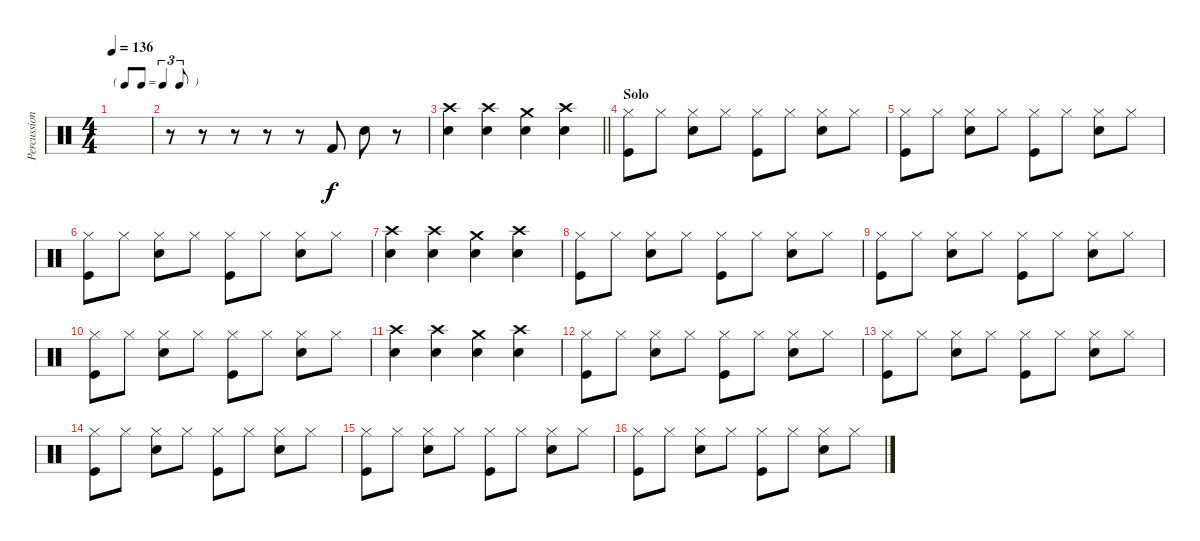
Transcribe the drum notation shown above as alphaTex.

\track ("Percussion" "Percussion") {instrument percussion}
\staff {score}
\articulation defaults
\ts (4 4)
\tf triplet8th
\tempo 136
\clef neutral
\ks c
|
r.8 r.8 r.8 r.8 r.8 "Kick (hit) 2".8 "Snare (hit) 2".8 r.8 |
\barLineRight lightlight
("Crash high (hit)" "Snare (hit) 2").4 ("Crash high (hit)" "Snare (hit) 2").4 ("Crash medium (hit)" "Snare (hit) 2").4 ("Crash high (hit)" "Snare (hit) 2").4 |
\section ("" "Solo")
("Hi-Hat (closed)" "Kick (hit)").8 "Hi-Hat (closed)".8 ("Hi-Hat (closed)" "Snare (hit) 2").8 "Hi-Hat (closed)".8 ("Hi-Hat (closed)" "Kick (hit)").8 "Hi-Hat (closed)".8 ("Hi-Hat (closed)" "Snare (hit) 2").8 "Hi-Hat (closed)".8 |
("Hi-Hat (closed)" "Kick (hit)").8 "Hi-Hat (closed)".8 ("Hi-Hat (closed)" "Snare (hit) 2").8 "Hi-Hat (closed)".8 ("Hi-Hat (closed)" "Kick (hit)").8 "Hi-Hat (closed)".8 ("Hi-Hat (closed)" "Snare (hit) 2").8 "Hi-Hat (closed)".8 |
("Hi-Hat (closed)" "Kick (hit)").8 "Hi-Hat (closed)".8 ("Hi-Hat (closed)" "Snare (hit) 2").8 "Hi-Hat (closed)".8 ("Hi-Hat (closed)" "Kick (hit)").8 "Hi-Hat (closed)".8 ("Hi-Hat (closed)" "Snare (hit) 2").8 "Hi-Hat (closed)".8 |
("Crash high (hit)" "Snare (hit) 2").4 ("Crash high (hit)" "Snare (hit) 2").4 ("Crash medium (hit)" "Snare (hit) 2").4 ("Crash high (hit)" "Snare (hit) 2").4 |
("Hi-Hat (closed)" "Kick (hit)").8 "Hi-Hat (closed)".8 ("Hi-Hat (closed)" "Snare (hit) 2").8 "Hi-Hat (closed)".8 ("Hi-Hat (closed)" "Kick (hit)").8 "Hi-Hat (closed)".8 ("Hi-Hat (closed)" "Snare (hit) 2").8 "Hi-Hat (closed)".8 |
("Hi-Hat (closed)" "Kick (hit)").8 "Hi-Hat (closed)".8 ("Hi-Hat (closed)" "Snare (hit) 2").8 "Hi-Hat (closed)".8 ("Hi-Hat (closed)" "Kick (hit)").8 "Hi-Hat (closed)".8 ("Hi-Hat (closed)" "Snare (hit) 2").8 "Hi-Hat (closed)".8 |
("Hi-Hat (closed)" "Kick (hit)").8 "Hi-Hat (closed)".8 ("Hi-Hat (closed)" "Snare (hit) 2").8 "Hi-Hat (closed)".8 ("Hi-Hat (closed)" "Kick (hit)").8 "Hi-Hat (closed)".8 ("Hi-Hat (closed)" "Snare (hit) 2").8 "Hi-Hat (closed)".8 |
("Crash high (hit)" "Snare (hit) 2").4 ("Crash high (hit)" "Snare (hit) 2").4 ("Crash medium (hit)" "Snare (hit) 2").4 ("Crash high (hit)" "Snare (hit) 2").4 |
("Hi-Hat (closed)" "Kick (hit)").8 "Hi-Hat (closed)".8 ("Hi-Hat (closed)" "Snare (hit) 2").8 "Hi-Hat (closed)".8 ("Hi-Hat (closed)" "Kick (hit)").8 "Hi-Hat (closed)".8 ("Hi-Hat (closed)" "Snare (hit) 2").8 "Hi-Hat (closed)".8 |
("Hi-Hat (closed)" "Kick (hit)").8 "Hi-Hat (closed)".8 ("Hi-Hat (closed)" "Snare (hit) 2").8 "Hi-Hat (closed)".8 ("Hi-Hat (closed)" "Kick (hit)").8 "Hi-Hat (closed)".8 ("Hi-Hat (closed)" "Snare (hit) 2").8 "Hi-Hat (closed)".8 |
("Hi-Hat (closed)" "Kick (hit)").8 "Hi-Hat (closed)".8 ("Hi-Hat (closed)" "Snare (hit) 2").8 "Hi-Hat (closed)".8 ("Hi-Hat (closed)" "Kick (hit)").8 "Hi-Hat (closed)".8 ("Hi-Hat (closed)" "Snare (hit) 2").8 "Hi-Hat (closed)".8 |
("Hi-Hat (closed)" "Kick (hit)").8 "Hi-Hat (closed)".8 ("Hi-Hat (closed)" "Snare (hit) 2").8 "Hi-Hat (closed)".8 ("Hi-Hat (closed)" "Kick (hit)").8 "Hi-Hat (closed)".8 ("Hi-Hat (closed)" "Snare (hit) 2").8 "Hi-Hat (closed)".8 |
("Hi-Hat (closed)" "Kick (hit)").8 "Hi-Hat (closed)".8 ("Hi-Hat (closed)" "Snare (hit) 2").8 "Hi-Hat (closed)".8 ("Hi-Hat (closed)" "Kick (hit)").8 "Hi-Hat (closed)".8 ("Hi-Hat (closed)" "Snare (hit) 2").8 "Hi-Hat (closed)".8
